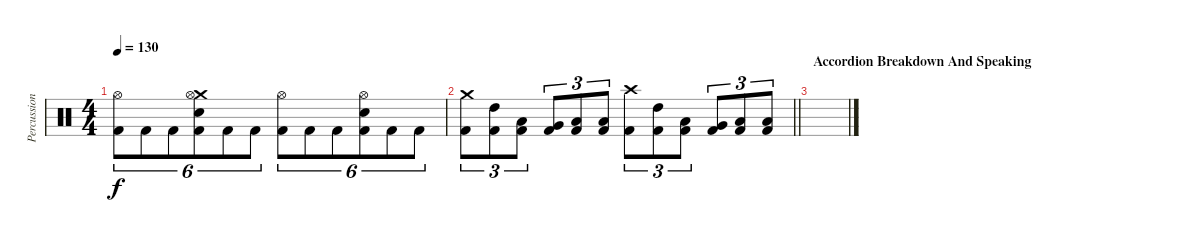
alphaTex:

\track ("Percussion" "Percussion") {instrument percussion}
\staff {score}
\articulation defaults
\ts (4 4)
\tempo 130
\clef neutral
\ks c
("Hi-Hat (open)" "Kick (hit) 2").8{tu (6 4) dy f} "Kick (hit) 2".8{tu (6 4)} "Kick (hit) 2".8{tu (6 4)} ("Crash medium (hit)" "Hi-Hat (open)" "Snare (hit) 2" "Kick (hit) 2").8{tu (6 4)} "Kick (hit) 2".8{tu (6 4)} "Kick (hit) 2".8{tu (6 4)} ("Hi-Hat (open)" "Kick (hit) 2").8{tu (6 4)} "Kick (hit) 2".8{tu (6 4)} "Kick (hit) 2".8{tu (6 4)} ("Hi-Hat (open)" "Snare (hit) 2" "Kick (hit) 2").8{tu (6 4)} "Kick (hit) 2".8{tu (6 4)} "Kick (hit) 2".8{tu (6 4)} |
\barLineRight lightlight
("Crash medium (hit)" "Kick (hit) 2").8{tu (3 2)} ("High Tom (hit)" "Kick (hit) 2").8{tu (3 2)} ("Low Tom (hit)" "Kick (hit) 2").8{tu (3 2)} ("Very Low Tom (hit)" "Kick (hit) 2").8{tu (3 2)} ("Low Floor Tom (hit)" "Kick (hit) 2").8{tu (3 2)} ("Low Floor Tom (hit)" "Kick (hit) 2").8{tu (3 2)} ("Crash high (hit)" "Kick (hit) 2").8{tu (3 2)} ("High Tom (hit)" "Kick (hit) 2").8{tu (3 2)} ("Low Tom (hit)" "Kick (hit) 2").8{tu (3 2)} ("Very Low Tom (hit)" "Kick (hit) 2").8{tu (3 2)} ("Low Floor Tom (hit)" "Kick (hit) 2").8{tu (3 2)} ("Low Floor Tom (hit)" "Kick (hit) 2").8{tu (3 2)} |
\section ("" "Accordion Breakdown And Speaking")
